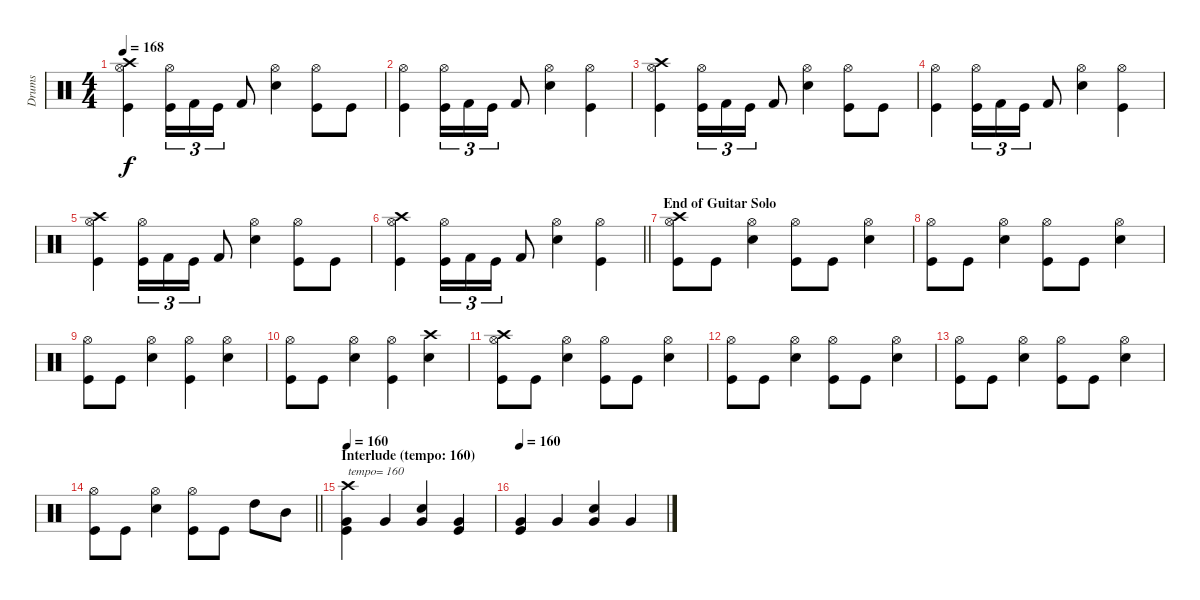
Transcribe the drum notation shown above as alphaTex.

\track ("Drums" "Drums") {instrument percussion}
\staff {score}
\articulation defaults
\ts (4 4)
\tempo 168
\clef neutral
\ks c
("Crash high (hit)" "Hi-Hat (open)" "Kick (hit)").4{dy f} ("Hi-Hat (open)" "Kick (hit)").16{tu (3 2)} "Kick (hit) 2".16{tu (3 2)} "Kick (hit)".16{tu (3 2)} "Kick (hit) 2".8 ("Hi-Hat (open)" "Snare (hit) 2").4 ("Hi-Hat (open)" "Kick (hit)").8 "Kick (hit)".8 |
("Hi-Hat (open)" "Kick (hit)").4 ("Hi-Hat (open)" "Kick (hit)").16{tu (3 2)} "Kick (hit) 2".16{tu (3 2)} "Kick (hit)".16{tu (3 2)} "Kick (hit) 2".8 ("Hi-Hat (open)" "Snare (hit) 2").4 ("Hi-Hat (open)" "Kick (hit)").4 |
("Crash high (hit)" "Hi-Hat (open)" "Kick (hit)").4 ("Hi-Hat (open)" "Kick (hit)").16{tu (3 2)} "Kick (hit) 2".16{tu (3 2)} "Kick (hit)".16{tu (3 2)} "Kick (hit) 2".8 ("Hi-Hat (open)" "Snare (hit) 2").4 ("Hi-Hat (open)" "Kick (hit)").8 "Kick (hit)".8 |
("Hi-Hat (open)" "Kick (hit)").4 ("Hi-Hat (open)" "Kick (hit)").16{tu (3 2)} "Kick (hit) 2".16{tu (3 2)} "Kick (hit)".16{tu (3 2)} "Kick (hit) 2".8 ("Hi-Hat (open)" "Snare (hit) 2").4 ("Hi-Hat (open)" "Kick (hit)").4 |
("Crash high (hit)" "Hi-Hat (open)" "Kick (hit)").4 ("Hi-Hat (open)" "Kick (hit)").16{tu (3 2)} "Kick (hit) 2".16{tu (3 2)} "Kick (hit)".16{tu (3 2)} "Kick (hit) 2".8 ("Hi-Hat (open)" "Snare (hit) 2").4 ("Hi-Hat (open)" "Kick (hit)").8 "Kick (hit)".8 |
\barLineRight lightlight
("Crash high (hit)" "Hi-Hat (open)" "Kick (hit)").4 ("Hi-Hat (open)" "Kick (hit)").16{tu (3 2)} "Kick (hit) 2".16{tu (3 2)} "Kick (hit)".16{tu (3 2)} "Kick (hit) 2".8 ("Hi-Hat (open)" "Snare (hit) 2").4 ("Hi-Hat (open)" "Kick (hit)").4 |
\section ("" "End of Guitar Solo ")
("Crash high (hit)" "Hi-Hat (open)" "Kick (hit)").8 "Kick (hit)".8 ("Hi-Hat (open)" "Snare (hit) 2").4 ("Hi-Hat (open)" "Kick (hit)").8 "Kick (hit)".8 ("Hi-Hat (open)" "Snare (hit) 2").4 |
("Hi-Hat (open)" "Kick (hit)").8 "Kick (hit)".8 ("Hi-Hat (open)" "Snare (hit) 2").4 ("Hi-Hat (open)" "Kick (hit)").8 "Kick (hit)".8 ("Hi-Hat (open)" "Snare (hit) 2").4 |
("Hi-Hat (open)" "Kick (hit)").8 "Kick (hit)".8 ("Hi-Hat (open)" "Snare (hit) 2").4 ("Hi-Hat (open)" "Kick (hit)").4 ("Hi-Hat (open)" "Snare (hit) 2").4 |
("Hi-Hat (open)" "Kick (hit)").8 "Kick (hit)".8 ("Hi-Hat (open)" "Snare (hit) 2").4 ("Hi-Hat (open)" "Kick (hit)").4 ("Crash high (hit)" "Snare (hit) 2").4 |
("Crash high (hit)" "Hi-Hat (open)" "Kick (hit)").8 "Kick (hit)".8 ("Hi-Hat (open)" "Snare (hit) 2").4 ("Hi-Hat (open)" "Kick (hit)").8 "Kick (hit)".8 ("Hi-Hat (open)" "Snare (hit) 2").4 |
("Hi-Hat (open)" "Kick (hit)").8 "Kick (hit)".8 ("Hi-Hat (open)" "Snare (hit) 2").4 ("Hi-Hat (open)" "Kick (hit)").8 "Kick (hit)".8 ("Hi-Hat (open)" "Snare (hit) 2").4 |
("Hi-Hat (open)" "Kick (hit)").8 "Kick (hit)".8 ("Hi-Hat (open)" "Snare (hit) 2").4 ("Hi-Hat (open)" "Kick (hit)").8 "Kick (hit)".8 ("Hi-Hat (open)" "Snare (hit) 2").4 |
\barLineRight lightlight
("Hi-Hat (open)" "Kick (hit)").8 "Kick (hit)".8 ("Hi-Hat (open)" "Snare (hit) 2").4 ("Hi-Hat (open)" "Kick (hit)").8 "Kick (hit)".8 "High Tom (hit)".8 "Mid Tom (hit)".8 |
\section ("" "Interlude (tempo: 160)")
\tempo 160
("Crash high (hit)" "Very Low Tom (hit)" "Kick (hit)").4{txt "tempo= 160"} "Very Low Tom (hit)".4 ("Very Low Tom (hit)" "Snare (hit) 2").4 ("Very Low Tom (hit)" "Kick (hit)").4 |
\tempo 160
("Very Low Tom (hit)" "Kick (hit)").4 "Very Low Tom (hit)".4 ("Very Low Tom (hit)" "Snare (hit) 2").4 "Very Low Tom (hit)".4
